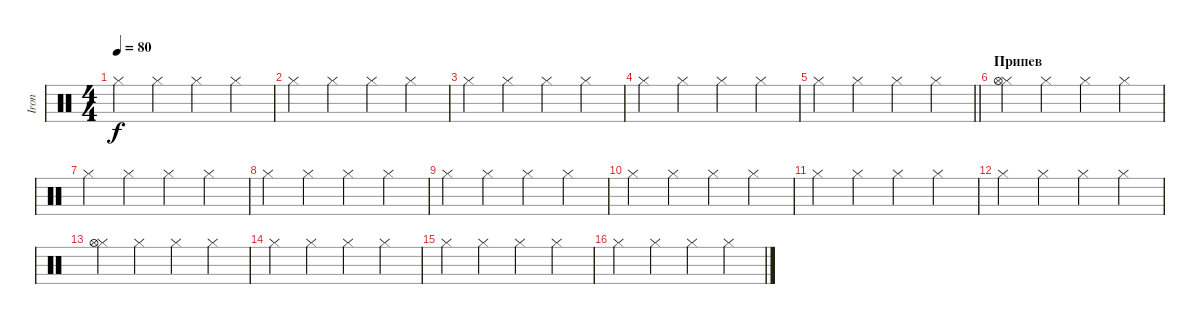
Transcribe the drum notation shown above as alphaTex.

\track ("Iron" "Iron") {instrument percussion}
\staff
\articulation defaults
\ts (4 4)
\tempo 80
\clef neutral
\ks c "Hi-Hat (closed)".4{dy f} "Hi-Hat (closed)".4 "Hi-Hat (closed)".4 "Hi-Hat (closed)".4
|
"Hi-Hat (closed)".4 "Hi-Hat (closed)".4 "Hi-Hat (closed)".4 "Hi-Hat (closed)".4 |
"Hi-Hat (closed)".4 "Hi-Hat (closed)".4 "Hi-Hat (closed)".4 "Hi-Hat (closed)".4 |
"Hi-Hat (closed)".4 "Hi-Hat (closed)".4 "Hi-Hat (closed)".4 "Hi-Hat (closed)".4 |
\barLineRight lightlight "Hi-Hat (closed)".4 "Hi-Hat (closed)".4 "Hi-Hat (closed)".4 "Hi-Hat (closed)".4
|
\section ("" "Припев")
("Hi-Hat (closed)" "Hi-Hat (open)").4 "Hi-Hat (closed)".4 "Hi-Hat (closed)".4 "Hi-Hat (closed)".4 |
"Hi-Hat (closed)".4 "Hi-Hat (closed)".4 "Hi-Hat (closed)".4 "Hi-Hat (closed)".4 |
"Hi-Hat (closed)".4 "Hi-Hat (closed)".4 "Hi-Hat (closed)".4 "Hi-Hat (closed)".4 |
"Hi-Hat (closed)".4 "Hi-Hat (closed)".4 "Hi-Hat (closed)".4 "Hi-Hat (closed)".4 |
"Hi-Hat (closed)".4 "Hi-Hat (closed)".4 "Hi-Hat (closed)".4 "Hi-Hat (closed)".4 |
"Hi-Hat (closed)".4 "Hi-Hat (closed)".4 "Hi-Hat (closed)".4 "Hi-Hat (closed)".4 |
"Hi-Hat (closed)".4 "Hi-Hat (closed)".4 "Hi-Hat (closed)".4 "Hi-Hat (closed)".4 |
("Hi-Hat (closed)" "Hi-Hat (open)").4 "Hi-Hat (closed)".4 "Hi-Hat (closed)".4 "Hi-Hat (closed)".4 |
"Hi-Hat (closed)".4 "Hi-Hat (closed)".4 "Hi-Hat (closed)".4 "Hi-Hat (closed)".4 |
"Hi-Hat (closed)".4 "Hi-Hat (closed)".4 "Hi-Hat (closed)".4 "Hi-Hat (closed)".4 |
"Hi-Hat (closed)".4 "Hi-Hat (closed)".4 "Hi-Hat (closed)".4 "Hi-Hat (closed)".4
